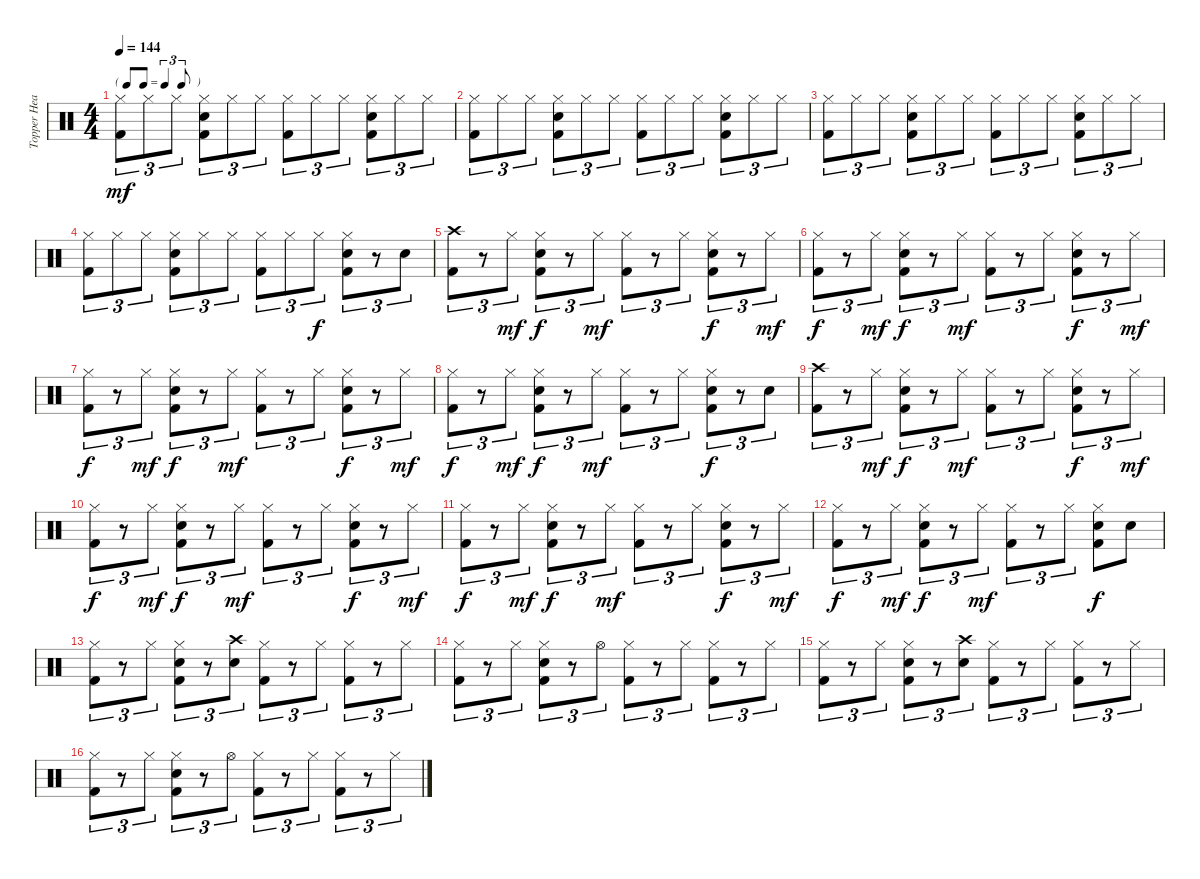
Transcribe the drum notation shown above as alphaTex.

\track ("Topper Headon" "Topper Hea") {instrument percussion}
\staff {score}
\articulation defaults
\ts (4 4)
\tf triplet8th
\tempo 144
\clef neutral
\ks c
("Hi-Hat (closed)" "Kick (hit) 2").8{tu (3 2) dy mf} "Hi-Hat (closed)".8{tu (3 2)} "Hi-Hat (closed)".8{tu (3 2)} ("Hi-Hat (closed)" "Snare (hit) 2" "Kick (hit) 2").8{tu (3 2)} "Hi-Hat (closed)".8{tu (3 2)} "Hi-Hat (closed)".8{tu (3 2)} ("Hi-Hat (closed)" "Kick (hit) 2").8{tu (3 2)} "Hi-Hat (closed)".8{tu (3 2)} "Hi-Hat (closed)".8{tu (3 2)} ("Hi-Hat (closed)" "Snare (hit) 2" "Kick (hit) 2").8{tu (3 2)} "Hi-Hat (closed)".8{tu (3 2)} "Hi-Hat (closed)".8{tu (3 2)} |
("Hi-Hat (closed)" "Kick (hit) 2").8{tu (3 2)} "Hi-Hat (closed)".8{tu (3 2)} "Hi-Hat (closed)".8{tu (3 2)} ("Hi-Hat (closed)" "Snare (hit) 2" "Kick (hit) 2").8{tu (3 2)} "Hi-Hat (closed)".8{tu (3 2)} "Hi-Hat (closed)".8{tu (3 2)} ("Hi-Hat (closed)" "Kick (hit) 2").8{tu (3 2)} "Hi-Hat (closed)".8{tu (3 2)} "Hi-Hat (closed)".8{tu (3 2)} ("Hi-Hat (closed)" "Snare (hit) 2" "Kick (hit) 2").8{tu (3 2)} "Hi-Hat (closed)".8{tu (3 2)} "Hi-Hat (closed)".8{tu (3 2)} |
("Hi-Hat (closed)" "Kick (hit) 2").8{tu (3 2)} "Hi-Hat (closed)".8{tu (3 2)} "Hi-Hat (closed)".8{tu (3 2)} ("Hi-Hat (closed)" "Snare (hit) 2" "Kick (hit) 2").8{tu (3 2)} "Hi-Hat (closed)".8{tu (3 2)} "Hi-Hat (closed)".8{tu (3 2)} ("Hi-Hat (closed)" "Kick (hit) 2").8{tu (3 2)} "Hi-Hat (closed)".8{tu (3 2)} "Hi-Hat (closed)".8{tu (3 2)} ("Hi-Hat (closed)" "Snare (hit) 2" "Kick (hit) 2").8{tu (3 2)} "Hi-Hat (closed)".8{tu (3 2)} "Hi-Hat (closed)".8{tu (3 2)} |
("Hi-Hat (closed)" "Kick (hit) 2").8{tu (3 2)} "Hi-Hat (closed)".8{tu (3 2)} "Hi-Hat (closed)".8{tu (3 2)} ("Hi-Hat (closed)" "Snare (hit) 2" "Kick (hit) 2").8{tu (3 2)} "Hi-Hat (closed)".8{tu (3 2)} "Hi-Hat (closed)".8{tu (3 2)} ("Hi-Hat (closed)" "Kick (hit) 2").8{tu (3 2)} "Hi-Hat (closed)".8{tu (3 2)} "Hi-Hat (closed)".8{tu (3 2) dy f} ("Hi-Hat (closed)" "Snare (hit) 2" "Kick (hit) 2").8{tu (3 2)} r.8{tu (3 2)} "Snare (hit) 2".8{tu (3 2)} |
("Crash high (hit)" "Kick (hit) 2").8{tu (3 2)} r.8{tu (3 2)} "Hi-Hat (closed)".8{tu (3 2) dy mf} ("Hi-Hat (closed)" "Snare (hit) 2" "Kick (hit) 2").8{tu (3 2) dy f} r.8{tu (3 2)} "Hi-Hat (closed)".8{tu (3 2) dy mf} ("Hi-Hat (closed)" "Kick (hit) 2").8{tu (3 2)} r.8{tu (3 2)} "Hi-Hat (closed)".8{tu (3 2)} ("Hi-Hat (closed)" "Snare (hit) 2" "Kick (hit) 2").8{tu (3 2) dy f} r.8{tu (3 2)} "Hi-Hat (closed)".8{tu (3 2) dy mf} |
("Hi-Hat (closed)" "Kick (hit) 2").8{tu (3 2) dy f} r.8{tu (3 2)} "Hi-Hat (closed)".8{tu (3 2) dy mf} ("Hi-Hat (closed)" "Snare (hit) 2" "Kick (hit) 2").8{tu (3 2) dy f} r.8{tu (3 2)} "Hi-Hat (closed)".8{tu (3 2) dy mf} ("Hi-Hat (closed)" "Kick (hit) 2").8{tu (3 2)} r.8{tu (3 2)} "Hi-Hat (closed)".8{tu (3 2)} ("Hi-Hat (closed)" "Snare (hit) 2" "Kick (hit) 2").8{tu (3 2) dy f} r.8{tu (3 2)} "Hi-Hat (closed)".8{tu (3 2) dy mf} |
("Hi-Hat (closed)" "Kick (hit) 2").8{tu (3 2) dy f} r.8{tu (3 2)} "Hi-Hat (closed)".8{tu (3 2) dy mf} ("Hi-Hat (closed)" "Snare (hit) 2" "Kick (hit) 2").8{tu (3 2) dy f} r.8{tu (3 2)} "Hi-Hat (closed)".8{tu (3 2) dy mf} ("Hi-Hat (closed)" "Kick (hit) 2").8{tu (3 2)} r.8{tu (3 2)} "Hi-Hat (closed)".8{tu (3 2)} ("Hi-Hat (closed)" "Snare (hit) 2" "Kick (hit) 2").8{tu (3 2) dy f} r.8{tu (3 2)} "Hi-Hat (closed)".8{tu (3 2) dy mf} |
("Hi-Hat (closed)" "Kick (hit) 2").8{tu (3 2) dy f} r.8{tu (3 2)} "Hi-Hat (closed)".8{tu (3 2) dy mf} ("Hi-Hat (closed)" "Snare (hit) 2" "Kick (hit) 2").8{tu (3 2) dy f} r.8{tu (3 2)} "Hi-Hat (closed)".8{tu (3 2) dy mf} ("Hi-Hat (closed)" "Kick (hit) 2").8{tu (3 2)} r.8{tu (3 2)} "Hi-Hat (closed)".8{tu (3 2)} ("Hi-Hat (closed)" "Snare (hit) 2" "Kick (hit) 2").8{tu (3 2) dy f} r.8{tu (3 2)} "Snare (hit) 2".8{tu (3 2)} |
("Crash high (hit)" "Kick (hit) 2").8{tu (3 2)} r.8{tu (3 2)} "Hi-Hat (closed)".8{tu (3 2) dy mf} ("Hi-Hat (closed)" "Snare (hit) 2" "Kick (hit) 2").8{tu (3 2) dy f} r.8{tu (3 2)} "Hi-Hat (closed)".8{tu (3 2) dy mf} ("Hi-Hat (closed)" "Kick (hit) 2").8{tu (3 2)} r.8{tu (3 2)} "Hi-Hat (closed)".8{tu (3 2)} ("Hi-Hat (closed)" "Snare (hit) 2" "Kick (hit) 2").8{tu (3 2) dy f} r.8{tu (3 2)} "Hi-Hat (closed)".8{tu (3 2) dy mf} |
("Hi-Hat (closed)" "Kick (hit) 2").8{tu (3 2) dy f} r.8{tu (3 2)} "Hi-Hat (closed)".8{tu (3 2) dy mf} ("Hi-Hat (closed)" "Snare (hit) 2" "Kick (hit) 2").8{tu (3 2) dy f} r.8{tu (3 2)} "Hi-Hat (closed)".8{tu (3 2) dy mf} ("Hi-Hat (closed)" "Kick (hit) 2").8{tu (3 2)} r.8{tu (3 2)} "Hi-Hat (closed)".8{tu (3 2)} ("Hi-Hat (closed)" "Snare (hit) 2" "Kick (hit) 2").8{tu (3 2) dy f} r.8{tu (3 2)} "Hi-Hat (closed)".8{tu (3 2) dy mf} |
("Hi-Hat (closed)" "Kick (hit) 2").8{tu (3 2) dy f} r.8{tu (3 2)} "Hi-Hat (closed)".8{tu (3 2) dy mf} ("Hi-Hat (closed)" "Snare (hit) 2" "Kick (hit) 2").8{tu (3 2) dy f} r.8{tu (3 2)} "Hi-Hat (closed)".8{tu (3 2) dy mf} ("Hi-Hat (closed)" "Kick (hit) 2").8{tu (3 2)} r.8{tu (3 2)} "Hi-Hat (closed)".8{tu (3 2)} ("Hi-Hat (closed)" "Snare (hit) 2" "Kick (hit) 2").8{tu (3 2) dy f} r.8{tu (3 2)} "Hi-Hat (closed)".8{tu (3 2) dy mf} |
("Hi-Hat (closed)" "Kick (hit) 2").8{tu (3 2) dy f} r.8{tu (3 2)} "Hi-Hat (closed)".8{tu (3 2) dy mf} ("Hi-Hat (closed)" "Snare (hit) 2" "Kick (hit) 2").8{tu (3 2) dy f} r.8{tu (3 2)} "Hi-Hat (closed)".8{tu (3 2) dy mf} ("Hi-Hat (closed)" "Kick (hit) 2").8{tu (3 2)} r.8{tu (3 2)} "Hi-Hat (closed)".8{tu (3 2)} ("Hi-Hat (closed)" "Snare (hit) 2" "Kick (hit) 2").8{dy f} "Snare (hit) 2".8 |
("Hi-Hat (closed)" "Kick (hit) 2").8{tu (3 2)} r.8{tu (3 2)} "Hi-Hat (closed)".8{tu (3 2)} ("Hi-Hat (closed)" "Snare (hit) 2" "Kick (hit) 2").8{tu (3 2)} r.8{tu (3 2)} ("Crash high (hit)" "Snare (hit) 2").8{tu (3 2)} ("Hi-Hat (closed)" "Kick (hit) 2").8{tu (3 2)} r.8{tu (3 2)} "Hi-Hat (closed)".8{tu (3 2)} ("Hi-Hat (closed)" "Kick (hit) 2").8{tu (3 2)} r.8{tu (3 2)} "Hi-Hat (closed)".8{tu (3 2)} |
("Hi-Hat (closed)" "Kick (hit) 2").8{tu (3 2)} r.8{tu (3 2)} "Hi-Hat (closed)".8{tu (3 2)} ("Hi-Hat (closed)" "Snare (hit) 2" "Kick (hit) 2").8{tu (3 2)} r.8{tu (3 2)} "Hi-Hat (open)".8{tu (3 2)} ("Hi-Hat (closed)" "Kick (hit) 2").8{tu (3 2)} r.8{tu (3 2)} "Hi-Hat (closed)".8{tu (3 2)} ("Hi-Hat (closed)" "Kick (hit) 2").8{tu (3 2)} r.8{tu (3 2)} "Hi-Hat (closed)".8{tu (3 2)} |
("Hi-Hat (closed)" "Kick (hit) 2").8{tu (3 2)} r.8{tu (3 2)} "Hi-Hat (closed)".8{tu (3 2)} ("Hi-Hat (closed)" "Snare (hit) 2" "Kick (hit) 2").8{tu (3 2)} r.8{tu (3 2)} ("Crash high (hit)" "Snare (hit) 2").8{tu (3 2)} ("Hi-Hat (closed)" "Kick (hit) 2").8{tu (3 2)} r.8{tu (3 2)} "Hi-Hat (closed)".8{tu (3 2)} ("Hi-Hat (closed)" "Kick (hit) 2").8{tu (3 2)} r.8{tu (3 2)} "Hi-Hat (closed)".8{tu (3 2)} |
("Hi-Hat (closed)" "Kick (hit) 2").8{tu (3 2)} r.8{tu (3 2)} "Hi-Hat (closed)".8{tu (3 2)} ("Hi-Hat (closed)" "Snare (hit) 2" "Kick (hit) 2").8{tu (3 2)} r.8{tu (3 2)} "Hi-Hat (open)".8{tu (3 2)} ("Hi-Hat (closed)" "Kick (hit) 2").8{tu (3 2)} r.8{tu (3 2)} "Hi-Hat (closed)".8{tu (3 2)} ("Hi-Hat (closed)" "Kick (hit) 2").8{tu (3 2)} r.8{tu (3 2)} "Hi-Hat (closed)".8{tu (3 2)}
